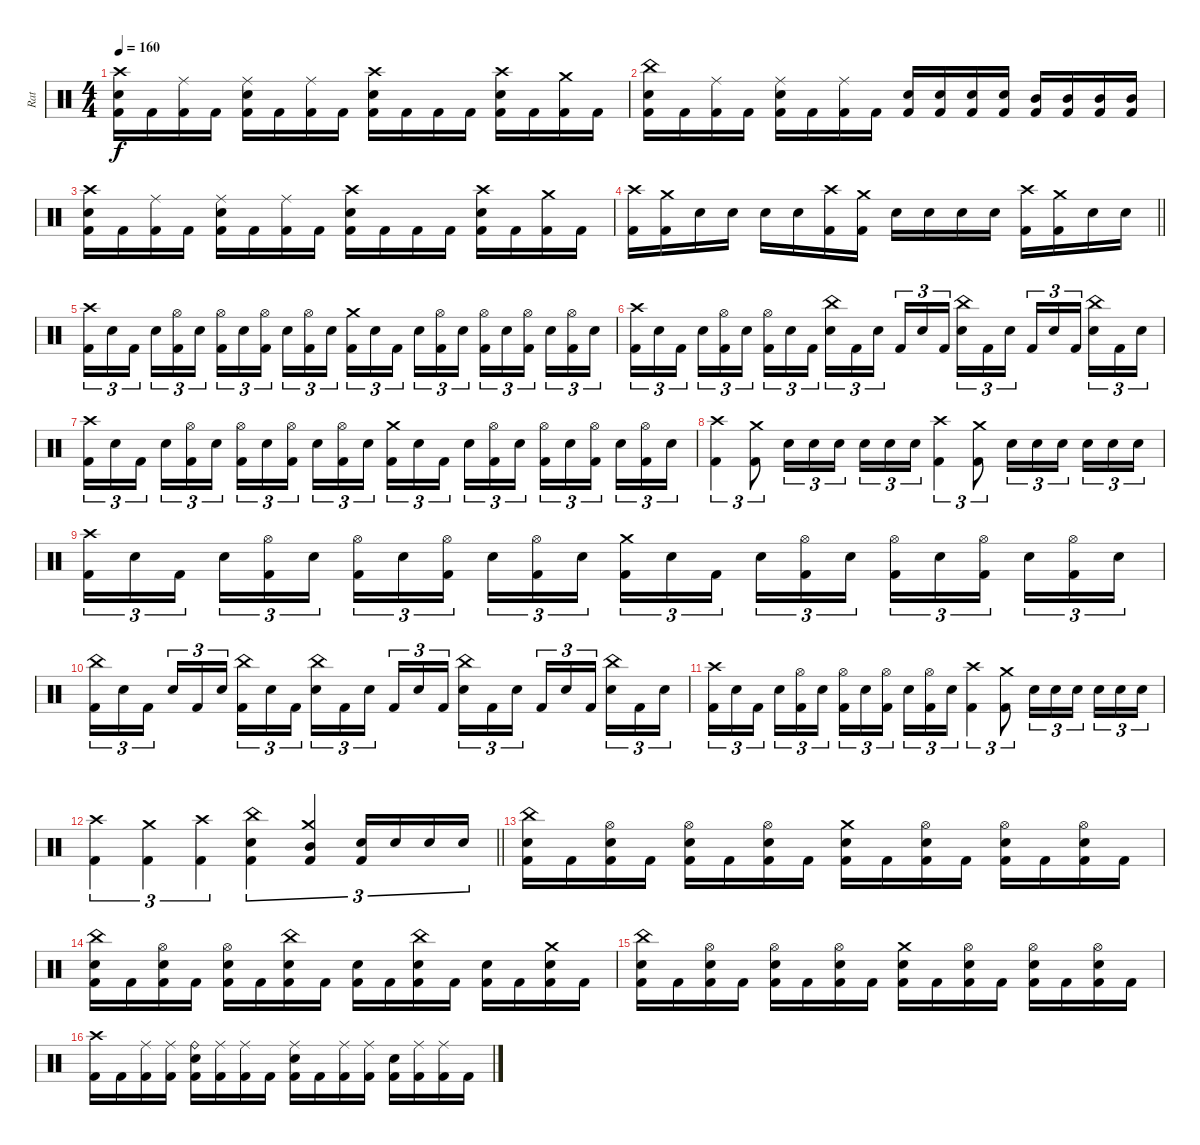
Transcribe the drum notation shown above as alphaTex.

\track ("Rat" "Rat") {instrument percussion}
\staff {score}
\articulation defaults
\ts (4 4)
\tempo 160
\clef neutral
\ks c
("Crash high (hit)" "Electric Snare (hit)" "Kick (hit) 2").16{dy f} "Kick (hit) 2".16 ("Ride (middle)" "Kick (hit) 2").16 "Kick (hit) 2".16 ("Ride (middle)" "Electric Snare (hit)" "Kick (hit) 2").16 "Kick (hit) 2".16 ("Ride (middle)" "Kick (hit) 2").16 "Kick (hit) 2".16 ("Crash high (hit)" "Electric Snare (hit)" "Kick (hit) 2").16 "Kick (hit) 2".16 "Kick (hit) 2".16 "Kick (hit) 2".16 ("Crash high (hit)" "Electric Snare (hit)" "Kick (hit) 2").16 "Kick (hit) 2".16 ("Crash medium (hit)" "Kick (hit) 2").16 "Kick (hit) 2".16 |
("China (hit)" "Electric Snare (hit)" "Kick (hit) 2").16 "Kick (hit) 2".16 ("Ride (middle)" "Kick (hit) 2").16 "Kick (hit) 2".16 ("Ride (middle)" "Electric Snare (hit)" "Kick (hit) 2").16 "Kick (hit) 2".16 ("Ride (middle)" "Kick (hit) 2").16 "Kick (hit) 2".16 ("Electric Snare (hit)" "Kick (hit) 2").16 ("Electric Snare (hit)" "Kick (hit) 2").16 ("Electric Snare (hit)" "Kick (hit) 2").16 ("Electric Snare (hit)" "Kick (hit) 2").16 ("Mid Tom (hit)" "Kick (hit) 2").16 ("Mid Tom (hit)" "Kick (hit) 2").16 ("Mid Tom (hit)" "Kick (hit) 2").16 ("Mid Tom (hit)" "Kick (hit) 2").16 |
("Crash high (hit)" "Electric Snare (hit)" "Kick (hit) 2").16 "Kick (hit) 2".16 ("Ride (middle)" "Kick (hit) 2").16 "Kick (hit) 2".16 ("Ride (middle)" "Electric Snare (hit)" "Kick (hit) 2").16 "Kick (hit) 2".16 ("Ride (middle)" "Kick (hit) 2").16 "Kick (hit) 2".16 ("Crash high (hit)" "Electric Snare (hit)" "Kick (hit) 2").16 "Kick (hit) 2".16 "Kick (hit) 2".16 "Kick (hit) 2".16 ("Crash high (hit)" "Electric Snare (hit)" "Kick (hit) 2").16 "Kick (hit) 2".16 ("Crash medium (hit)" "Kick (hit) 2").16 "Kick (hit) 2".16 |
\barLineRight lightlight
("Crash high (hit)" "Kick (hit) 2").16 ("Crash medium (hit)" "Kick (hit) 2").16 "Electric Snare (hit)".16 "Electric Snare (hit)".16 "Electric Snare (hit)".16 "Electric Snare (hit)".16 ("Crash high (hit)" "Kick (hit) 2").16 ("Crash medium (hit)" "Kick (hit) 2").16 "Electric Snare (hit)".16 "Electric Snare (hit)".16 "Electric Snare (hit)".16 "Electric Snare (hit)".16 ("Crash high (hit)" "Kick (hit) 2").16 ("Crash medium (hit)" "Kick (hit) 2").16 "Electric Snare (hit)".16 "Electric Snare (hit)".16 |
("Crash high (hit)" "Kick (hit) 2").16{tu (3 2)} "Electric Snare (hit)".16{tu (3 2)} "Kick (hit) 2".16{tu (3 2) beam splitsecondary} "Electric Snare (hit)".16{tu (3 2)} ("Hi-Hat (open)" "Kick (hit) 2").16{tu (3 2)} "Electric Snare (hit)".16{tu (3 2)} ("Hi-Hat (open)" "Kick (hit) 2").16{tu (3 2)} "Electric Snare (hit)".16{tu (3 2)} ("Hi-Hat (open)" "Kick (hit) 2").16{tu (3 2) beam splitsecondary} "Electric Snare (hit)".16{tu (3 2)} ("Hi-Hat (open)" "Kick (hit) 2").16{tu (3 2)} "Electric Snare (hit)".16{tu (3 2)} ("Crash medium (hit)" "Kick (hit) 2").16{tu (3 2)} "Electric Snare (hit)".16{tu (3 2)} "Kick (hit) 2".16{tu (3 2) beam splitsecondary} "Electric Snare (hit)".16{tu (3 2)} ("Hi-Hat (open)" "Kick (hit) 2").16{tu (3 2)} "Electric Snare (hit)".16{tu (3 2)} ("Hi-Hat (open)" "Kick (hit) 2").16{tu (3 2)} "Electric Snare (hit)".16{tu (3 2)} ("Hi-Hat (open)" "Kick (hit) 2").16{tu (3 2) beam splitsecondary} "Electric Snare (hit)".16{tu (3 2)} ("Hi-Hat (open)" "Kick (hit) 2").16{tu (3 2)} "Electric Snare (hit)".16{tu (3 2)} |
("Crash high (hit)" "Kick (hit) 2").16{tu (3 2)} "Electric Snare (hit)".16{tu (3 2)} "Kick (hit) 2".16{tu (3 2) beam splitsecondary} "Electric Snare (hit)".16{tu (3 2)} ("Hi-Hat (open)" "Kick (hit) 2").16{tu (3 2)} "Electric Snare (hit)".16{tu (3 2)} ("Hi-Hat (open)" "Kick (hit) 2").16{tu (3 2)} "Electric Snare (hit)".16{tu (3 2)} "Kick (hit) 2".16{tu (3 2) beam splitsecondary} ("China (hit)" "Electric Snare (hit)").16{tu (3 2)} "Kick (hit) 2".16{tu (3 2)} "Electric Snare (hit)".16{tu (3 2)} "Kick (hit) 2".16{tu (3 2)} "Electric Snare (hit)".16{tu (3 2)} "Kick (hit) 2".16{tu (3 2) beam splitsecondary} ("China (hit)" "Electric Snare (hit)").16{tu (3 2)} "Kick (hit) 2".16{tu (3 2)} "Electric Snare (hit)".16{tu (3 2)} "Kick (hit) 2".16{tu (3 2)} "Electric Snare (hit)".16{tu (3 2)} "Kick (hit) 2".16{tu (3 2) beam splitsecondary} ("China (hit)" "Electric Snare (hit)").16{tu (3 2)} "Kick (hit) 2".16{tu (3 2)} "Electric Snare (hit)".16{tu (3 2)} |
("Crash high (hit)" "Kick (hit) 2").16{tu (3 2)} "Electric Snare (hit)".16{tu (3 2)} "Kick (hit) 2".16{tu (3 2) beam splitsecondary} "Electric Snare (hit)".16{tu (3 2)} ("Hi-Hat (open)" "Kick (hit) 2").16{tu (3 2)} "Electric Snare (hit)".16{tu (3 2)} ("Hi-Hat (open)" "Kick (hit) 2").16{tu (3 2)} "Electric Snare (hit)".16{tu (3 2)} ("Hi-Hat (open)" "Kick (hit) 2").16{tu (3 2) beam splitsecondary} "Electric Snare (hit)".16{tu (3 2)} ("Hi-Hat (open)" "Kick (hit) 2").16{tu (3 2)} "Electric Snare (hit)".16{tu (3 2)} ("Crash medium (hit)" "Kick (hit) 2").16{tu (3 2)} "Electric Snare (hit)".16{tu (3 2)} "Kick (hit) 2".16{tu (3 2) beam splitsecondary} "Electric Snare (hit)".16{tu (3 2)} ("Hi-Hat (open)" "Kick (hit) 2").16{tu (3 2)} "Electric Snare (hit)".16{tu (3 2)} ("Hi-Hat (open)" "Kick (hit) 2").16{tu (3 2)} "Electric Snare (hit)".16{tu (3 2)} ("Hi-Hat (open)" "Kick (hit) 2").16{tu (3 2) beam splitsecondary} "Electric Snare (hit)".16{tu (3 2)} ("Hi-Hat (open)" "Kick (hit) 2").16{tu (3 2)} "Electric Snare (hit)".16{tu (3 2)} |
("Crash high (hit)" "Kick (hit) 2").4{tu (3 2)} ("Crash medium (hit)" "Kick (hit) 2").8{tu (3 2)} "Electric Snare (hit)".16{tu (3 2)} "Electric Snare (hit)".16{tu (3 2)} "Electric Snare (hit)".16{tu (3 2) beam splitsecondary} "Electric Snare (hit)".16{tu (3 2)} "Electric Snare (hit)".16{tu (3 2)} "Electric Snare (hit)".16{tu (3 2)} ("Crash high (hit)" "Kick (hit) 2").4{tu (3 2)} ("Crash medium (hit)" "Kick (hit) 2").8{tu (3 2)} "Electric Snare (hit)".16{tu (3 2)} "Electric Snare (hit)".16{tu (3 2)} "Electric Snare (hit)".16{tu (3 2) beam splitsecondary} "Electric Snare (hit)".16{tu (3 2)} "Electric Snare (hit)".16{tu (3 2)} "Electric Snare (hit)".16{tu (3 2)} |
("Crash high (hit)" "Kick (hit) 2").16{tu (3 2)} "Electric Snare (hit)".16{tu (3 2)} "Kick (hit) 2".16{tu (3 2) beam splitsecondary} "Electric Snare (hit)".16{tu (3 2)} ("Hi-Hat (open)" "Kick (hit) 2").16{tu (3 2)} "Electric Snare (hit)".16{tu (3 2)} ("Hi-Hat (open)" "Kick (hit) 2").16{tu (3 2)} "Electric Snare (hit)".16{tu (3 2)} ("Hi-Hat (open)" "Kick (hit) 2").16{tu (3 2) beam splitsecondary} "Electric Snare (hit)".16{tu (3 2)} ("Hi-Hat (open)" "Kick (hit) 2").16{tu (3 2)} "Electric Snare (hit)".16{tu (3 2)} ("Crash medium (hit)" "Kick (hit) 2").16{tu (3 2)} "Electric Snare (hit)".16{tu (3 2)} "Kick (hit) 2".16{tu (3 2) beam splitsecondary} "Electric Snare (hit)".16{tu (3 2)} ("Hi-Hat (open)" "Kick (hit) 2").16{tu (3 2)} "Electric Snare (hit)".16{tu (3 2)} ("Hi-Hat (open)" "Kick (hit) 2").16{tu (3 2)} "Electric Snare (hit)".16{tu (3 2)} ("Hi-Hat (open)" "Kick (hit) 2").16{tu (3 2) beam splitsecondary} "Electric Snare (hit)".16{tu (3 2)} ("Hi-Hat (open)" "Kick (hit) 2").16{tu (3 2)} "Electric Snare (hit)".16{tu (3 2)} |
("China (hit)" "Kick (hit) 2").16{tu (3 2)} "Electric Snare (hit)".16{tu (3 2)} "Kick (hit) 2".16{tu (3 2) beam splitsecondary} "Electric Snare (hit)".16{tu (3 2)} "Kick (hit) 2".16{tu (3 2)} "Electric Snare (hit)".16{tu (3 2)} ("China (hit)" "Kick (hit) 2").16{tu (3 2)} "Electric Snare (hit)".16{tu (3 2)} "Kick (hit) 2".16{tu (3 2) beam splitsecondary} ("China (hit)" "Electric Snare (hit)").16{tu (3 2)} "Kick (hit) 2".16{tu (3 2)} "Electric Snare (hit)".16{tu (3 2)} "Kick (hit) 2".16{tu (3 2)} "Electric Snare (hit)".16{tu (3 2)} "Kick (hit) 2".16{tu (3 2) beam splitsecondary} ("China (hit)" "Electric Snare (hit)").16{tu (3 2)} "Kick (hit) 2".16{tu (3 2)} "Electric Snare (hit)".16{tu (3 2)} "Kick (hit) 2".16{tu (3 2)} "Electric Snare (hit)".16{tu (3 2)} "Kick (hit) 2".16{tu (3 2) beam splitsecondary} ("China (hit)" "Electric Snare (hit)").16{tu (3 2)} "Kick (hit) 2".16{tu (3 2)} "Electric Snare (hit)".16{tu (3 2)} |
("Crash high (hit)" "Kick (hit) 2").16{tu (3 2)} "Electric Snare (hit)".16{tu (3 2)} "Kick (hit) 2".16{tu (3 2) beam splitsecondary} "Electric Snare (hit)".16{tu (3 2)} ("Hi-Hat (open)" "Kick (hit) 2").16{tu (3 2)} "Electric Snare (hit)".16{tu (3 2)} ("Hi-Hat (open)" "Kick (hit) 2").16{tu (3 2)} "Electric Snare (hit)".16{tu (3 2)} ("Hi-Hat (open)" "Kick (hit) 2").16{tu (3 2) beam splitsecondary} "Electric Snare (hit)".16{tu (3 2)} ("Hi-Hat (open)" "Kick (hit) 2").16{tu (3 2)} "Electric Snare (hit)".16{tu (3 2)} ("Crash high (hit)" "Kick (hit) 2").4{tu (3 2)} ("Crash medium (hit)" "Kick (hit) 2").8{tu (3 2)} "Electric Snare (hit)".16{tu (3 2)} "Electric Snare (hit)".16{tu (3 2)} "Electric Snare (hit)".16{tu (3 2) beam splitsecondary} "Electric Snare (hit)".16{tu (3 2)} "Electric Snare (hit)".16{tu (3 2)} "Electric Snare (hit)".16{tu (3 2)} |
\barLineRight lightlight
("Crash high (hit)" "Kick (hit) 2").4{tu (3 2)} ("Crash medium (hit)" "Kick (hit) 2").4{tu (3 2)} ("Crash high (hit)" "Kick (hit) 2").4{tu (3 2)} ("China (hit)" "Electric Snare (hit)" "Kick (hit) 2").4{tu (3 2)} ("Crash medium (hit)" "Mid Tom (hit)" "Kick (hit) 2").4{tu (3 2)} ("Electric Snare (hit)" "Kick (hit) 2").16{tu (3 2)} "Electric Snare (hit)".16{tu (3 2)} "Electric Snare (hit)".16{tu (3 2)} "Electric Snare (hit)".16{tu (3 2)} |
("China (hit)" "Electric Snare (hit)" "Kick (hit) 2").16 "Kick (hit) 2".16 ("Hi-Hat (open)" "Electric Snare (hit)" "Kick (hit) 2").16 "Kick (hit) 2".16 ("Hi-Hat (open)" "Electric Snare (hit)" "Kick (hit) 2").16 "Kick (hit) 2".16 ("Hi-Hat (open)" "Electric Snare (hit)" "Kick (hit) 2").16 "Kick (hit) 2".16 ("Crash medium (hit)" "Electric Snare (hit)" "Kick (hit) 2").16 "Kick (hit) 2".16 ("Hi-Hat (open)" "Electric Snare (hit)" "Kick (hit) 2").16 "Kick (hit) 2".16 ("Hi-Hat (open)" "Electric Snare (hit)" "Kick (hit) 2").16 "Kick (hit) 2".16 ("Hi-Hat (open)" "Electric Snare (hit)" "Kick (hit) 2").16 "Kick (hit) 2".16 |
("China (hit)" "Electric Snare (hit)" "Kick (hit) 2").16 "Kick (hit) 2".16 ("Hi-Hat (open)" "Electric Snare (hit)" "Kick (hit) 2").16 "Kick (hit) 2".16 ("Hi-Hat (open)" "Electric Snare (hit)" "Kick (hit) 2").16 "Kick (hit) 2".16 ("China (hit)" "Electric Snare (hit)" "Kick (hit) 2").16 "Kick (hit) 2".16 ("Electric Snare (hit)" "Kick (hit) 2").16 "Kick (hit) 2".16 ("China (hit)" "Electric Snare (hit)" "Kick (hit) 2").16 "Kick (hit) 2".16 ("Electric Snare (hit)" "Kick (hit) 2").16 "Kick (hit) 2".16 ("Crash medium (hit)" "Electric Snare (hit)" "Kick (hit) 2").16 "Kick (hit) 2".16 |
("China (hit)" "Electric Snare (hit)" "Kick (hit) 2").16 "Kick (hit) 2".16 ("Hi-Hat (open)" "Electric Snare (hit)" "Kick (hit) 2").16 "Kick (hit) 2".16 ("Hi-Hat (open)" "Electric Snare (hit)" "Kick (hit) 2").16 "Kick (hit) 2".16 ("Hi-Hat (open)" "Electric Snare (hit)" "Kick (hit) 2").16 "Kick (hit) 2".16 ("Crash medium (hit)" "Electric Snare (hit)" "Kick (hit) 2").16 "Kick (hit) 2".16 ("Hi-Hat (open)" "Electric Snare (hit)" "Kick (hit) 2").16 "Kick (hit) 2".16 ("Hi-Hat (open)" "Electric Snare (hit)" "Kick (hit) 2").16 "Kick (hit) 2".16 ("Hi-Hat (open)" "Electric Snare (hit)" "Kick (hit) 2").16 "Kick (hit) 2".16 |
("Crash high (hit)" "Kick (hit) 2").16 "Kick (hit) 2".16 ("Ride (middle)" "Kick (hit) 2").16 ("Ride (middle)" "Kick (hit) 2").16 ("Ride (bell)" "Electric Snare (hit)" "Kick (hit) 2").16 ("Ride (middle)" "Kick (hit) 2").16 ("Ride (middle)" "Kick (hit) 2").16 "Kick (hit) 2".16 ("Ride (middle)" "Electric Snare (hit)" "Kick (hit) 2").16 "Kick (hit) 2".16 ("Ride (middle)" "Kick (hit) 2").16 ("Ride (middle)" "Kick (hit) 2").16 ("Electric Snare (hit)" "Kick (hit) 2").16 ("Ride (middle)" "Kick (hit) 2").16 ("Ride (middle)" "Kick (hit) 2").16 "Kick (hit) 2".16
